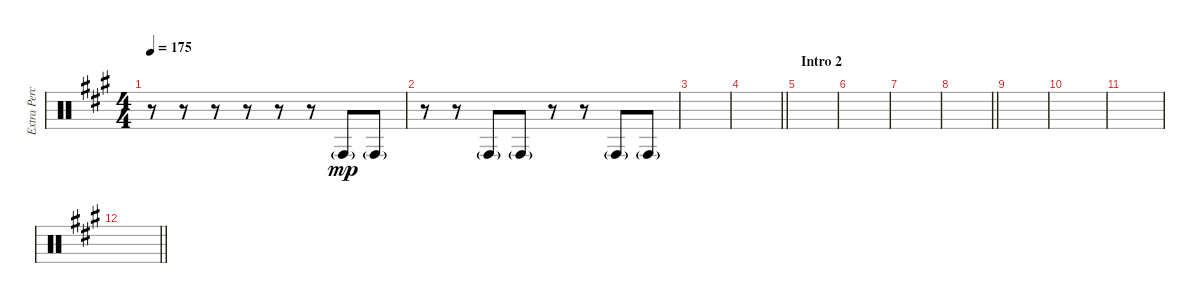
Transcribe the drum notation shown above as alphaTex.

\track ("Extra Percussion" "Extra Perc") {instrument percussion}
\staff {score}
\articulation defaults
\ts (4 4)
\tempo 175
\clef neutral
\ks f#minor
r.8{dy mp} r.8 r.8 r.8 r.8 r.8 "Conga high (hit)"{g}.8 "Conga high (hit)"{g}.8 |
r.8 r.8 "Conga high (hit)"{g}.8 "Conga high (hit)"{g}.8 r.8 r.8 "Conga high (hit)"{g}.8 "Conga high (hit)"{g}.8 |
|
\barLineRight lightlight
|
\section ("" "Intro 2")
|
|
|
\barLineRight lightlight
|
|
|
|
\barLineRight lightlight
